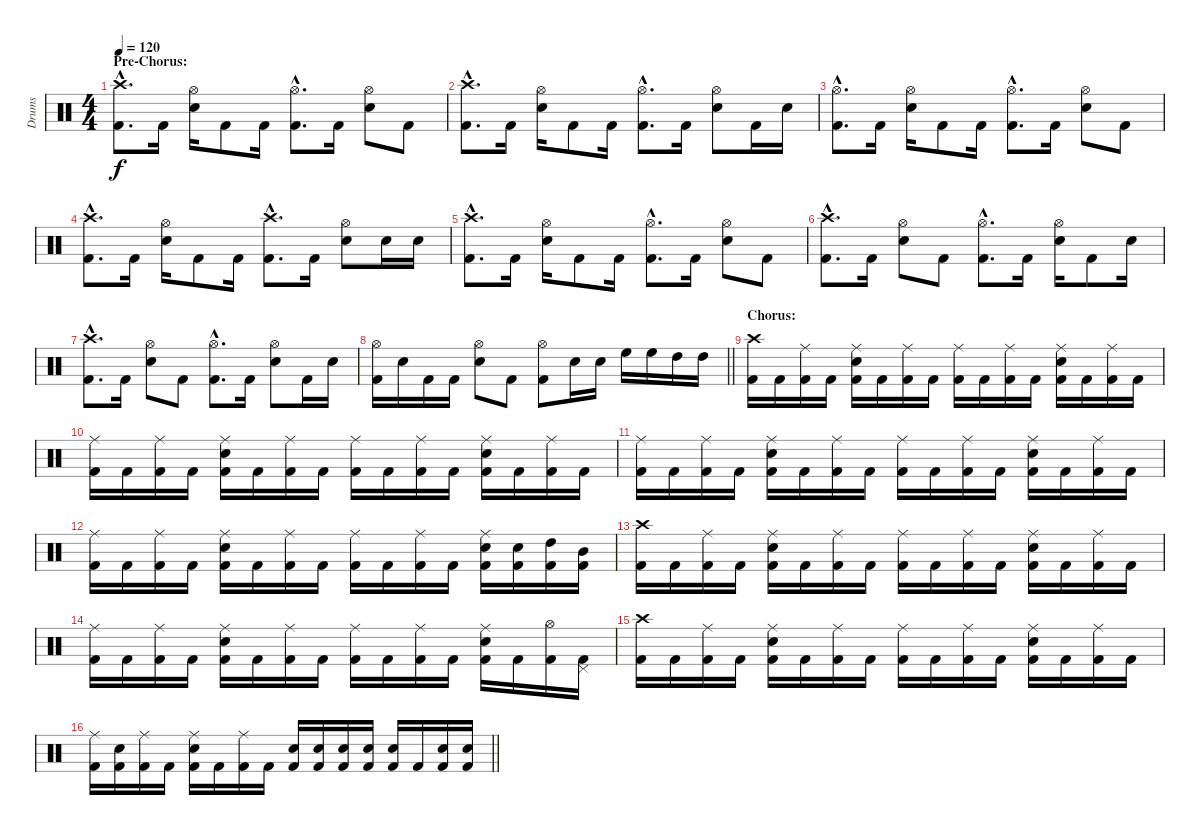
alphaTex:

\track ("Drums" "Drums") {instrument percussion}
\staff {score}
\articulation defaults
\ts (4 4)
\section ("" "Pre-Chorus:")
\tempo 120
\clef neutral
\ks c
("Crash high (hit)"{hac} "Kick (hit) 2"{hac}).8{d dy f} "Kick (hit) 2".16 ("Hi-Hat (open)" "Electric Snare (hit)").16 "Kick (hit) 2".8 "Kick (hit) 2".16 ("Hi-Hat (open)"{hac} "Kick (hit) 2"{hac}).8{d} "Kick (hit) 2".16 ("Hi-Hat (open)" "Electric Snare (hit)").8 "Kick (hit) 2".8 |
("Crash high (hit)"{hac} "Kick (hit) 2"{hac}).8{d} "Kick (hit) 2".16 ("Hi-Hat (open)" "Electric Snare (hit)").16 "Kick (hit) 2".8 "Kick (hit) 2".16 ("Hi-Hat (open)"{hac} "Kick (hit) 2"{hac}).8{d} "Kick (hit) 2".16 ("Hi-Hat (open)" "Electric Snare (hit)").8 "Kick (hit) 2".16 "Electric Snare (hit)".16 |
("Hi-Hat (open)"{hac} "Kick (hit) 2"{hac}).8{d} "Kick (hit) 2".16 ("Hi-Hat (open)" "Electric Snare (hit)").16 "Kick (hit) 2".8 "Kick (hit) 2".16 ("Hi-Hat (open)"{hac} "Kick (hit) 2"{hac}).8{d} "Kick (hit) 2".16 ("Hi-Hat (open)" "Electric Snare (hit)").8 "Kick (hit) 2".8 |
("Crash high (hit)"{hac} "Kick (hit) 2"{hac}).8{d} "Kick (hit) 2".16 ("Hi-Hat (open)" "Electric Snare (hit)").16 "Kick (hit) 2".8 "Kick (hit) 2".16 ("Crash high (hit)"{hac} "Kick (hit) 2"{hac}).8{d} "Kick (hit) 2".16 ("Hi-Hat (open)" "Electric Snare (hit)").8 "Electric Snare (hit)".16 "Electric Snare (hit)".16 |
("Crash high (hit)"{hac} "Kick (hit) 2"{hac}).8{d} "Kick (hit) 2".16 ("Hi-Hat (open)" "Electric Snare (hit)").16 "Kick (hit) 2".8 "Kick (hit) 2".16 ("Hi-Hat (open)"{hac} "Kick (hit) 2"{hac}).8{d} "Kick (hit) 2".16 ("Hi-Hat (open)" "Electric Snare (hit)").8 "Kick (hit) 2".8 |
("Crash high (hit)"{hac} "Kick (hit) 2"{hac}).8{d} "Kick (hit) 2".16 ("Hi-Hat (open)" "Electric Snare (hit)").8 "Kick (hit) 2".8 ("Hi-Hat (open)"{hac} "Kick (hit) 2"{hac}).8{d} "Kick (hit) 2".16 ("Hi-Hat (open)" "Electric Snare (hit)").16 "Kick (hit) 2".8 "Electric Snare (hit)".16 |
("Crash high (hit)"{hac} "Kick (hit) 2"{hac}).8{d} "Kick (hit) 2".16 ("Hi-Hat (open)" "Electric Snare (hit)").8 "Kick (hit) 2".8 ("Hi-Hat (open)"{hac} "Kick (hit) 2"{hac}).8{d} "Kick (hit) 2".16 ("Hi-Hat (open)" "Electric Snare (hit)").8 "Kick (hit) 2".16 "Electric Snare (hit)".16 |
\barLineRight lightlight
("Hi-Hat (open)" "Kick (hit) 2").16 "Electric Snare (hit)".16 "Kick (hit) 2".16 "Kick (hit) 2".16 ("Hi-Hat (open)" "Electric Snare (hit)").8 "Kick (hit) 2".8 ("Hi-Hat (open)" "Kick (hit) 2").8 "Electric Snare (hit)".16 "Electric Snare (hit)".16 "High Floor Tom (hit)".16 "High Floor Tom (hit)".16 "High Tom (hit)".16 "High Tom (hit)".16 |
\section ("" "Chorus:")
("Crash high (hit)" "Kick (hit) 2").16 "Kick (hit) 2".16 ("Ride (middle)" "Kick (hit) 2").16 "Kick (hit) 2".16 ("Ride (middle)" "Electric Snare (hit)" "Kick (hit) 2").16 "Kick (hit) 2".16 ("Ride (middle)" "Kick (hit) 2").16 "Kick (hit) 2".16 ("Ride (middle)" "Kick (hit) 2").16 "Kick (hit) 2".16 ("Ride (middle)" "Kick (hit) 2").16 "Kick (hit) 2".16 ("Ride (middle)" "Electric Snare (hit)" "Kick (hit) 2").16 "Kick (hit) 2".16 ("Ride (middle)" "Kick (hit) 2").16 "Kick (hit) 2".16 |
("Ride (middle)" "Kick (hit) 2").16 "Kick (hit) 2".16 ("Ride (middle)" "Kick (hit) 2").16 "Kick (hit) 2".16 ("Ride (middle)" "Electric Snare (hit)" "Kick (hit) 2").16 "Kick (hit) 2".16 ("Ride (middle)" "Kick (hit) 2").16 "Kick (hit) 2".16 ("Ride (middle)" "Kick (hit) 2").16 "Kick (hit) 2".16 ("Ride (middle)" "Kick (hit) 2").16 "Kick (hit) 2".16 ("Ride (middle)" "Electric Snare (hit)" "Kick (hit) 2").16 "Kick (hit) 2".16 ("Ride (middle)" "Kick (hit) 2").16 "Kick (hit) 2".16 |
("Ride (middle)" "Kick (hit) 2").16 "Kick (hit) 2".16 ("Ride (middle)" "Kick (hit) 2").16 "Kick (hit) 2".16 ("Ride (middle)" "Electric Snare (hit)" "Kick (hit) 2").16 "Kick (hit) 2".16 ("Ride (middle)" "Kick (hit) 2").16 "Kick (hit) 2".16 ("Ride (middle)" "Kick (hit) 2").16 "Kick (hit) 2".16 ("Ride (middle)" "Kick (hit) 2").16 "Kick (hit) 2".16 ("Ride (middle)" "Electric Snare (hit)" "Kick (hit) 2").16 "Kick (hit) 2".16 ("Ride (middle)" "Kick (hit) 2").16 "Kick (hit) 2".16 |
("Ride (middle)" "Kick (hit) 2").16 "Kick (hit) 2".16 ("Ride (middle)" "Kick (hit) 2").16 "Kick (hit) 2".16 ("Ride (middle)" "Electric Snare (hit)" "Kick (hit) 2").16 "Kick (hit) 2".16 ("Ride (middle)" "Kick (hit) 2").16 "Kick (hit) 2".16 ("Ride (middle)" "Kick (hit) 2").16 "Kick (hit) 2".16 ("Ride (middle)" "Kick (hit) 2").16 "Kick (hit) 2".16 ("Ride (middle)" "Electric Snare (hit)" "Kick (hit) 2").16 ("Electric Snare (hit)" "Kick (hit) 2").16 ("High Tom (hit)" "Kick (hit) 2").16 ("Mid Tom (hit)" "Kick (hit) 2").16 |
("Crash high (hit)" "Kick (hit) 2").16 "Kick (hit) 2".16 ("Ride (middle)" "Kick (hit) 2").16 "Kick (hit) 2".16 ("Ride (middle)" "Electric Snare (hit)" "Kick (hit) 2").16 "Kick (hit) 2".16 ("Ride (middle)" "Kick (hit) 2").16 "Kick (hit) 2".16 ("Ride (middle)" "Kick (hit) 2").16 "Kick (hit) 2".16 ("Ride (middle)" "Kick (hit) 2").16 "Kick (hit) 2".16 ("Ride (middle)" "Electric Snare (hit)" "Kick (hit) 2").16 "Kick (hit) 2".16 ("Ride (middle)" "Kick (hit) 2").16 "Kick (hit) 2".16 |
("Ride (middle)" "Kick (hit) 2").16 "Kick (hit) 2".16 ("Ride (middle)" "Kick (hit) 2").16 "Kick (hit) 2".16 ("Ride (middle)" "Electric Snare (hit)" "Kick (hit) 2").16 "Kick (hit) 2".16 ("Ride (middle)" "Kick (hit) 2").16 "Kick (hit) 2".16 ("Ride (middle)" "Kick (hit) 2").16 "Kick (hit) 2".16 ("Ride (middle)" "Kick (hit) 2").16 "Kick (hit) 2".16 ("Ride (middle)" "Electric Snare (hit)" "Kick (hit) 2").16 "Kick (hit) 2".16 ("Hi-Hat (open)" "Kick (hit) 2").16 ("Pedal Hi-Hat (hit)" "Kick (hit) 2").16 |
("Crash high (hit)" "Kick (hit) 2").16 "Kick (hit) 2".16 ("Ride (middle)" "Kick (hit) 2").16 "Kick (hit) 2".16 ("Ride (middle)" "Electric Snare (hit)" "Kick (hit) 2").16 "Kick (hit) 2".16 ("Ride (middle)" "Kick (hit) 2").16 "Kick (hit) 2".16 ("Ride (middle)" "Kick (hit) 2").16 "Kick (hit) 2".16 ("Ride (middle)" "Kick (hit) 2").16 "Kick (hit) 2".16 ("Ride (middle)" "Electric Snare (hit)" "Kick (hit) 2").16 "Kick (hit) 2".16 ("Ride (middle)" "Kick (hit) 2").16 "Kick (hit) 2".16 |
\barLineRight lightlight
("Ride (middle)" "Kick (hit) 2").16 ("Electric Snare (hit)" "Kick (hit) 2").16 ("Ride (middle)" "Kick (hit) 2").16 "Kick (hit) 2".16 ("Ride (middle)" "Electric Snare (hit)" "Kick (hit) 2").16 "Kick (hit) 2".16 ("Ride (middle)" "Kick (hit) 2").16 "Kick (hit) 2".16 ("Electric Snare (hit)" "Kick (hit) 2").16 ("Electric Snare (hit)" "Kick (hit) 2").16 ("Electric Snare (hit)" "Kick (hit) 2").16 ("Electric Snare (hit)" "Kick (hit) 2").16 ("Electric Snare (hit)" "Kick (hit) 2").16 "Kick (hit) 2".16 ("Electric Snare (hit)" "Kick (hit) 2").16 ("Electric Snare (hit)" "Kick (hit) 2").16
